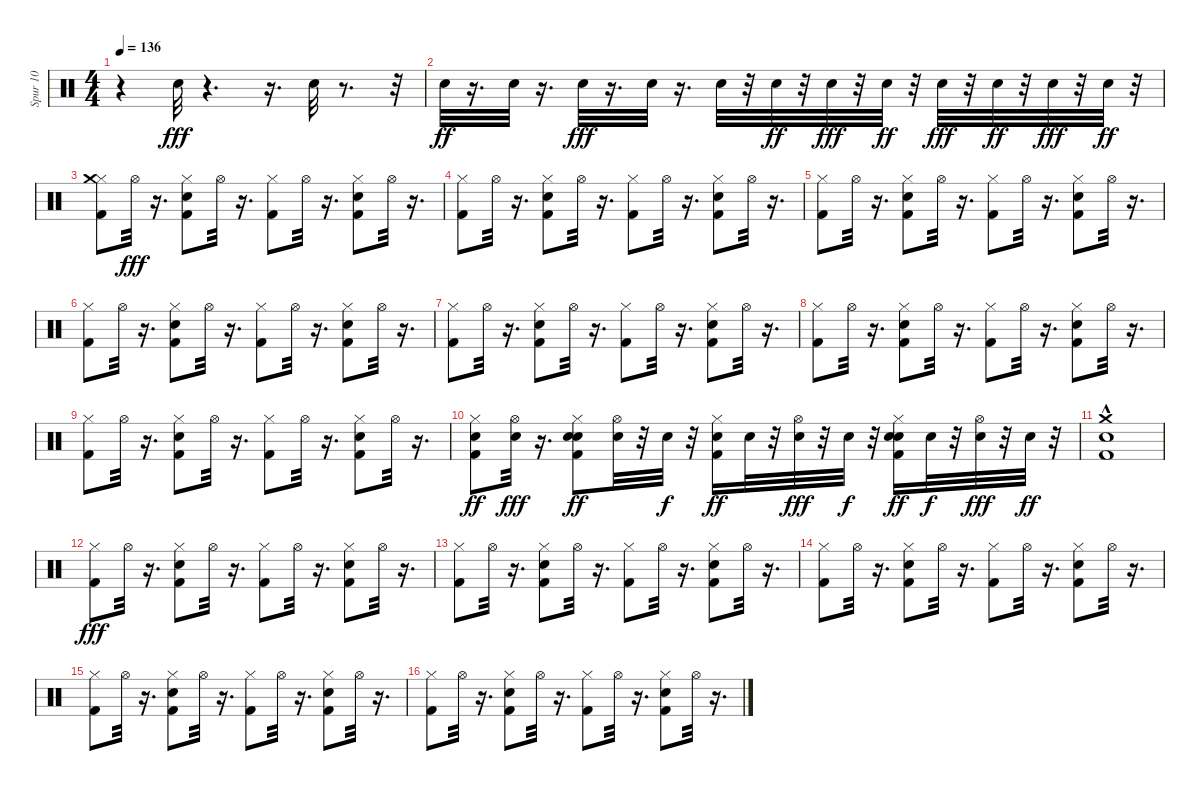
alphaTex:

\track ("Spur 10" "Spur 10") {instrument percussion}
\staff {score}
\articulation defaults
\ts (4 4)
\tempo 136
\clef neutral
\ks c
r.4{dy ff} "Snare (hit) 2".32{dy fff} r.4{d} r.16{d} "Snare (hit) 2".32 r.8{d} r.32 |
"Snare (hit) 2".32{dy ff} r.16{d} "Snare (hit) 2".32 r.16{d} "Snare (hit) 2".32{dy fff} r.16{d} "Snare (hit) 2".32 r.16{d} "Snare (hit) 2".32 r.32 "Snare (hit) 2".32{dy ff} r.32 "Snare (hit) 2".32{dy fff} r.32 "Snare (hit) 2".32{dy ff} r.32 "Snare (hit) 2".32{dy fff} r.32 "Snare (hit) 2".32{dy ff} r.32 "Snare (hit) 2".32{dy fff} r.32 "Snare (hit) 2".32{dy ff} r.32 |
("Kick (hit) 2" "Hi-Hat (closed)" "Crash medium (hit)").8 "Hi-Hat (open)".32{dy fff} r.16{d} ("Kick (hit) 2" "Snare (hit) 2" "Hi-Hat (closed)").8 "Hi-Hat (open)".32 r.16{d} ("Kick (hit) 2" "Hi-Hat (closed)").8 "Hi-Hat (open)".32 r.16{d} ("Hi-Hat (closed)" "Kick (hit) 2" "Snare (hit) 2").8 "Hi-Hat (open)".32 r.16{d} |
("Hi-Hat (closed)" "Kick (hit) 2").8 "Hi-Hat (open)".32 r.16{d} ("Kick (hit) 2" "Snare (hit) 2" "Hi-Hat (closed)").8 "Hi-Hat (open)".32 r.16{d} ("Hi-Hat (closed)" "Kick (hit) 2").8 "Hi-Hat (open)".32 r.16{d} ("Hi-Hat (closed)" "Snare (hit) 2" "Kick (hit) 2").8 "Hi-Hat (open)".32 r.16{d} |
("Hi-Hat (closed)" "Kick (hit) 2").8 "Hi-Hat (open)".32 r.16{d} ("Kick (hit) 2" "Hi-Hat (closed)" "Snare (hit) 2").8 "Hi-Hat (open)".32 r.16{d} ("Kick (hit) 2" "Hi-Hat (closed)").8 "Hi-Hat (open)".32 r.16{d} ("Kick (hit) 2" "Snare (hit) 2" "Hi-Hat (closed)").8 "Hi-Hat (open)".32 r.16{d} |
("Hi-Hat (closed)" "Kick (hit) 2").8 "Hi-Hat (open)".32 r.16{d} ("Kick (hit) 2" "Snare (hit) 2" "Hi-Hat (closed)").8 "Hi-Hat (open)".32 r.16{d} ("Kick (hit) 2" "Hi-Hat (closed)").8 "Hi-Hat (open)".32 r.16{d} ("Snare (hit) 2" "Hi-Hat (closed)" "Kick (hit) 2").8 "Hi-Hat (open)".32 r.16{d} |
("Hi-Hat (closed)" "Kick (hit) 2").8 "Hi-Hat (open)".32 r.16{d} ("Kick (hit) 2" "Hi-Hat (closed)" "Snare (hit) 2").8 "Hi-Hat (open)".32 r.16{d} ("Kick (hit) 2" "Hi-Hat (closed)").8 "Hi-Hat (open)".32 r.16{d} ("Snare (hit) 2" "Kick (hit) 2" "Hi-Hat (closed)").8 "Hi-Hat (open)".32 r.16{d} |
("Hi-Hat (closed)" "Kick (hit) 2").8 "Hi-Hat (open)".32 r.16{d} ("Snare (hit) 2" "Hi-Hat (closed)" "Kick (hit) 2").8 "Hi-Hat (open)".32 r.16{d} ("Hi-Hat (closed)" "Kick (hit) 2").8 "Hi-Hat (open)".32 r.16{d} ("Kick (hit) 2" "Hi-Hat (closed)" "Snare (hit) 2").8 "Hi-Hat (open)".32 r.16{d} |
("Hi-Hat (closed)" "Kick (hit) 2").8 "Hi-Hat (open)".32 r.16{d} ("Hi-Hat (closed)" "Snare (hit) 2" "Kick (hit) 2").8 "Hi-Hat (open)".32 r.16{d} ("Kick (hit) 2" "Hi-Hat (closed)").8 "Hi-Hat (open)".32 r.16{d} ("Kick (hit) 2" "Hi-Hat (closed)" "Snare (hit) 2").8 "Hi-Hat (open)".32 r.16{d} |
("Hi-Hat (closed)" "Kick (hit) 2" "Snare (hit) 2").8{dy ff} ("Snare (hit) 2" "Hi-Hat (open)").32{dy fff} r.16{d} ("Kick (hit) 2" "Snare (hit) 2" "Hi-Hat (closed)" "Snare (hit) 2").8{dy ff} ("Hi-Hat (open)" "Snare (hit) 2").32 r.32 "Snare (hit) 2".32{dy f} r.32 ("Hi-Hat (closed)" "Kick (hit) 2" "Snare (hit) 2").16{dy ff} "Snare (hit) 2".32 r.32 ("Hi-Hat (open)" "Snare (hit) 2").32{dy fff} r.32 "Snare (hit) 2".32{dy f} r.32 ("Kick (hit) 2" "Snare (hit) 2" "Hi-Hat (closed)" "Snare (hit) 2").16{dy ff} "Snare (hit) 2".32{dy f} r.32 ("Snare (hit) 2" "Hi-Hat (open)").32{dy fff} r.32 "Snare (hit) 2".32{dy ff} r.32 |
("Kick (hit) 2"{hac} "Snare (hit) 2" "Crash medium (hit)").1 |
("Hi-Hat (closed)" "Kick (hit) 2").8{dy fff} "Hi-Hat (open)".32 r.16{d} ("Snare (hit) 2" "Hi-Hat (closed)" "Kick (hit) 2").8 "Hi-Hat (open)".32 r.16{d} ("Kick (hit) 2" "Hi-Hat (closed)").8 "Hi-Hat (open)".32 r.16{d} ("Snare (hit) 2" "Hi-Hat (closed)" "Kick (hit) 2").8 "Hi-Hat (open)".32 r.16{d} |
("Kick (hit) 2" "Hi-Hat (closed)").8 "Hi-Hat (open)".32 r.16{d} ("Hi-Hat (closed)" "Snare (hit) 2" "Kick (hit) 2").8 "Hi-Hat (open)".32 r.16{d} ("Kick (hit) 2" "Hi-Hat (closed)").8 "Hi-Hat (open)".32 r.16{d} ("Kick (hit) 2" "Snare (hit) 2" "Hi-Hat (closed)").8 "Hi-Hat (open)".32 r.16{d} |
("Kick (hit) 2" "Hi-Hat (closed)").8 "Hi-Hat (open)".32 r.16{d} ("Kick (hit) 2" "Snare (hit) 2" "Hi-Hat (closed)").8 "Hi-Hat (open)".32 r.16{d} ("Hi-Hat (closed)" "Kick (hit) 2").8 "Hi-Hat (open)".32 r.16{d} ("Hi-Hat (closed)" "Kick (hit) 2" "Snare (hit) 2").8 "Hi-Hat (open)".32 r.16{d} |
("Hi-Hat (closed)" "Kick (hit) 2").8 "Hi-Hat (open)".32 r.16{d} ("Snare (hit) 2" "Kick (hit) 2" "Hi-Hat (closed)").8 "Hi-Hat (open)".32 r.16{d} ("Hi-Hat (closed)" "Kick (hit) 2").8 "Hi-Hat (open)".32 r.16{d} ("Snare (hit) 2" "Hi-Hat (closed)" "Kick (hit) 2").8 "Hi-Hat (open)".32 r.16{d} |
("Hi-Hat (closed)" "Kick (hit) 2").8 "Hi-Hat (open)".32 r.16{d} ("Snare (hit) 2" "Hi-Hat (closed)" "Kick (hit) 2").8 "Hi-Hat (open)".32 r.16{d} ("Kick (hit) 2" "Hi-Hat (closed)").8 "Hi-Hat (open)".32 r.16{d} ("Snare (hit) 2" "Hi-Hat (closed)" "Kick (hit) 2").8 "Hi-Hat (open)".32 r.16{d}
